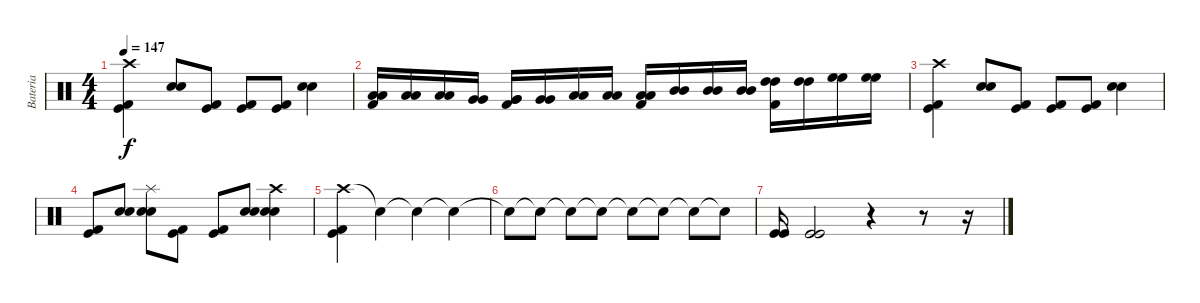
\track ("Bateria" "Bateria") {instrument percussion}
\staff {score}
\articulation defaults
\ts (4 4)
\tempo 147
\clef neutral
\ks c
("Crash high (hit)" "Kick (hit)" "Kick (hit) 2").4{dy f} ("Snare (hit) 2" "Electric Snare (hit)").8 ("Kick (hit)" "Kick (hit) 2").8 ("Kick (hit)" "Kick (hit) 2").8 ("Kick (hit)" "Kick (hit) 2").8 ("Snare (hit) 2" "Electric Snare (hit)").4 |
("Low Floor Tom (hit)" "Low Floor Tom (hit)" "Kick (hit) 2").16 ("Low Floor Tom (hit)" "Low Floor Tom (hit)").16 ("Low Floor Tom (hit)" "Low Floor Tom (hit)").16 ("Very Low Tom (hit)" "Very Low Tom (hit)").16 ("Very Low Tom (hit)" "Very Low Tom (hit)" "Kick (hit) 2").16 ("Very Low Tom (hit)" "Very Low Tom (hit)").16 ("Low Tom (hit)" "Low Tom (hit)").16 ("Low Tom (hit)" "Low Tom (hit)").16 ("Low Tom (hit)" "Low Tom (hit)" "Kick (hit) 2").16 ("Mid Tom (hit)" "Mid Tom (hit)").16 ("Mid Tom (hit)" "Mid Tom (hit)").16 ("Mid Tom (hit)" "Mid Tom (hit)").16 ("High Tom (hit)" "High Tom (hit)" "Kick (hit) 2").16 ("High Tom (hit)" "High Tom (hit)").16 ("High Floor Tom (hit)" "High Floor Tom (hit)").16 ("High Floor Tom (hit)" "High Floor Tom (hit)").16 |
("Crash high (hit)" "Kick (hit)" "Kick (hit) 2").4 ("Snare (hit) 2" "Electric Snare (hit)").8 ("Kick (hit)" "Kick (hit) 2").8 ("Kick (hit)" "Kick (hit) 2").8 ("Kick (hit)" "Kick (hit) 2").8 ("Snare (hit) 2" "Electric Snare (hit)").4 |
("Kick (hit)" "Kick (hit) 2").8 ("Snare (hit) 2" "Electric Snare (hit)").8 ("Splash (hit)" "Snare (hit) 2" "Electric Snare (hit)").8 ("Kick (hit)" "Kick (hit) 2").8 ("Kick (hit)" "Kick (hit) 2").8 ("Snare (hit) 2" "Electric Snare (hit)").8 ("Crash high (hit)" "Snare (hit) 2" "Electric Snare (hit)").4 |
("Crash high (hit)" "Kick (hit)" "Kick (hit) 2").4 "Snare (hit)"{t}.4 "Snare (hit)"{t}.4 "Snare (hit)"{t}.4{volume 14} |
"Snare (hit)"{t}.8{volume 12} "Snare (hit)"{t}.8 "Snare (hit)"{t}.8 "Snare (hit)"{t}.8{volume 10} "Snare (hit)"{t}.8 "Snare (hit)"{t}.8{volume 8} "Snare (hit)"{t}.8 "Snare (hit)"{t}.8{volume 5} |
("Kick (hit)" "Kick (hit)").16{volume 16} ("Kick (hit)" "Kick (hit)").2 r.4 r.8 r.16
